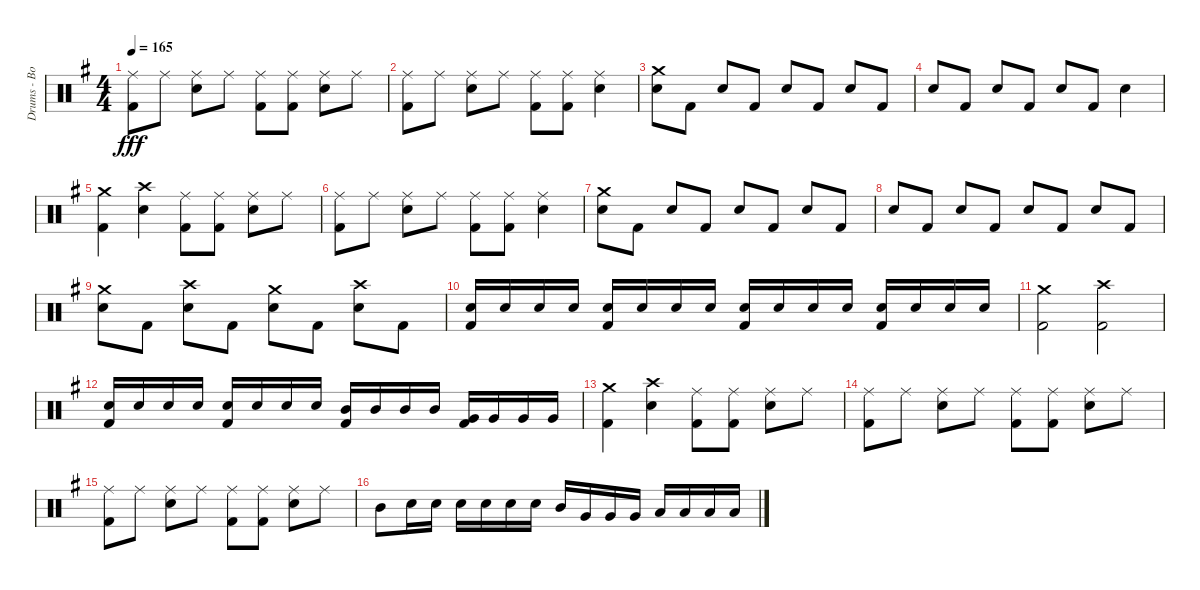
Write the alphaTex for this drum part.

\track ("Drums - Bobby Schayer" "Drums - Bo") {instrument percussion}
\staff {score}
\articulation defaults
\ts (4 4)
\tempo 165
\clef neutral
\ks g
("Ride (middle)" "Kick (hit) 2").8{dy fff} "Ride (middle)".8 ("Ride (middle)" "Electric Snare (hit)").8 "Ride (middle)".8 ("Ride (middle)" "Kick (hit) 2").8 ("Ride (middle)" "Kick (hit) 2").8 ("Ride (middle)" "Electric Snare (hit)").8 "Ride (middle)".8 |
("Ride (middle)" "Kick (hit) 2").8 "Ride (middle)".8 ("Ride (middle)" "Electric Snare (hit)").8 "Ride (middle)".8 ("Ride (middle)" "Kick (hit) 2").8 ("Ride (middle)" "Kick (hit) 2").8 ("Ride (middle)" "Electric Snare (hit)").4 |
("Crash medium (hit)" "Electric Snare (hit)").8 "Kick (hit) 2".8 "Electric Snare (hit)".8 "Kick (hit) 2".8 "Electric Snare (hit)".8 "Kick (hit) 2".8 "Electric Snare (hit)".8 "Kick (hit) 2".8 |
"Electric Snare (hit)".8 "Kick (hit) 2".8 "Electric Snare (hit)".8 "Kick (hit) 2".8 "Electric Snare (hit)".8 "Kick (hit) 2".8 "Electric Snare (hit)".4 |
("Crash medium (hit)" "Kick (hit) 2").4 ("Crash high (hit)" "Electric Snare (hit)").4 ("Ride (middle)" "Kick (hit) 2").8 ("Ride (middle)" "Kick (hit) 2").8 ("Ride (middle)" "Electric Snare (hit)").8 "Ride (middle)".8 |
("Ride (middle)" "Kick (hit) 2").8 "Ride (middle)".8 ("Ride (middle)" "Electric Snare (hit)").8 "Ride (middle)".8 ("Ride (middle)" "Kick (hit) 2").8 ("Ride (middle)" "Kick (hit) 2").8 ("Ride (middle)" "Electric Snare (hit)").4 |
("Crash medium (hit)" "Electric Snare (hit)").8 "Kick (hit) 2".8 "Electric Snare (hit)".8 "Kick (hit) 2".8 "Electric Snare (hit)".8 "Kick (hit) 2".8 "Electric Snare (hit)".8 "Kick (hit) 2".8 |
"Electric Snare (hit)".8 "Kick (hit) 2".8 "Electric Snare (hit)".8 "Kick (hit) 2".8 "Electric Snare (hit)".8 "Kick (hit) 2".8 "Electric Snare (hit)".8 "Kick (hit) 2".8 |
("Crash medium (hit)" "Electric Snare (hit)").8 "Kick (hit) 2".8 ("Crash high (hit)" "Electric Snare (hit)").8 "Kick (hit) 2".8 ("Crash medium (hit)" "Electric Snare (hit)").8 "Kick (hit) 2".8 ("Crash high (hit)" "Electric Snare (hit)").8 "Kick (hit) 2".8 |
("Electric Snare (hit)" "Kick (hit) 2").16 "Electric Snare (hit)".16 "Electric Snare (hit)".16 "Electric Snare (hit)".16 ("Electric Snare (hit)" "Kick (hit) 2").16 "Electric Snare (hit)".16 "Electric Snare (hit)".16 "Electric Snare (hit)".16 ("Electric Snare (hit)" "Kick (hit) 2").16 "Electric Snare (hit)".16 "Electric Snare (hit)".16 "Electric Snare (hit)".16 ("Electric Snare (hit)" "Kick (hit) 2").16 "Electric Snare (hit)".16 "Electric Snare (hit)".16 "Electric Snare (hit)".16 |
("Crash medium (hit)" "Kick (hit) 2").2 ("Crash high (hit)" "Kick (hit) 2").2 |
("Electric Snare (hit)" "Kick (hit) 2").16 "Electric Snare (hit)".16 "Electric Snare (hit)".16 "Electric Snare (hit)".16 ("Electric Snare (hit)" "Kick (hit) 2").16 "Electric Snare (hit)".16 "Electric Snare (hit)".16 "Electric Snare (hit)".16 ("Mid Tom (hit)" "Kick (hit) 2").16 "Mid Tom (hit)".16 "Mid Tom (hit)".16 "Mid Tom (hit)".16 ("Very Low Tom (hit)" "Kick (hit) 2").16 "Very Low Tom (hit)".16 "Very Low Tom (hit)".16 "Very Low Tom (hit)".16 |
("Crash medium (hit)" "Kick (hit) 2").4 ("Crash high (hit)" "Electric Snare (hit)").4 ("Ride (middle)" "Kick (hit) 2").8 ("Ride (middle)" "Kick (hit) 2").8 ("Ride (middle)" "Electric Snare (hit)").8 "Ride (middle)".8 |
("Ride (middle)" "Kick (hit) 2").8 "Ride (middle)".8 ("Ride (middle)" "Electric Snare (hit)").8 "Ride (middle)".8 ("Ride (middle)" "Kick (hit) 2").8 ("Ride (middle)" "Kick (hit) 2").8 ("Ride (middle)" "Electric Snare (hit)").8 "Ride (middle)".8 |
("Ride (middle)" "Kick (hit) 2").8 "Ride (middle)".8 ("Ride (middle)" "Electric Snare (hit)").8 "Ride (middle)".8 ("Ride (middle)" "Kick (hit) 2").8 ("Ride (middle)" "Kick (hit) 2").8 ("Ride (middle)" "Electric Snare (hit)").8 "Ride (middle)".8 |
"Mid Tom (hit)".8 "Electric Snare (hit)".16 "Electric Snare (hit)".16 "Electric Snare (hit)".16 "Electric Snare (hit)".16 "Electric Snare (hit)".16 "Electric Snare (hit)".16 "Mid Tom (hit)".16 "Very Low Tom (hit)".16 "Very Low Tom (hit)".16 "Very Low Tom (hit)".16 "Low Floor Tom (hit)".16 "Low Floor Tom (hit)".16 "Low Floor Tom (hit)".16 "Low Floor Tom (hit)".16
